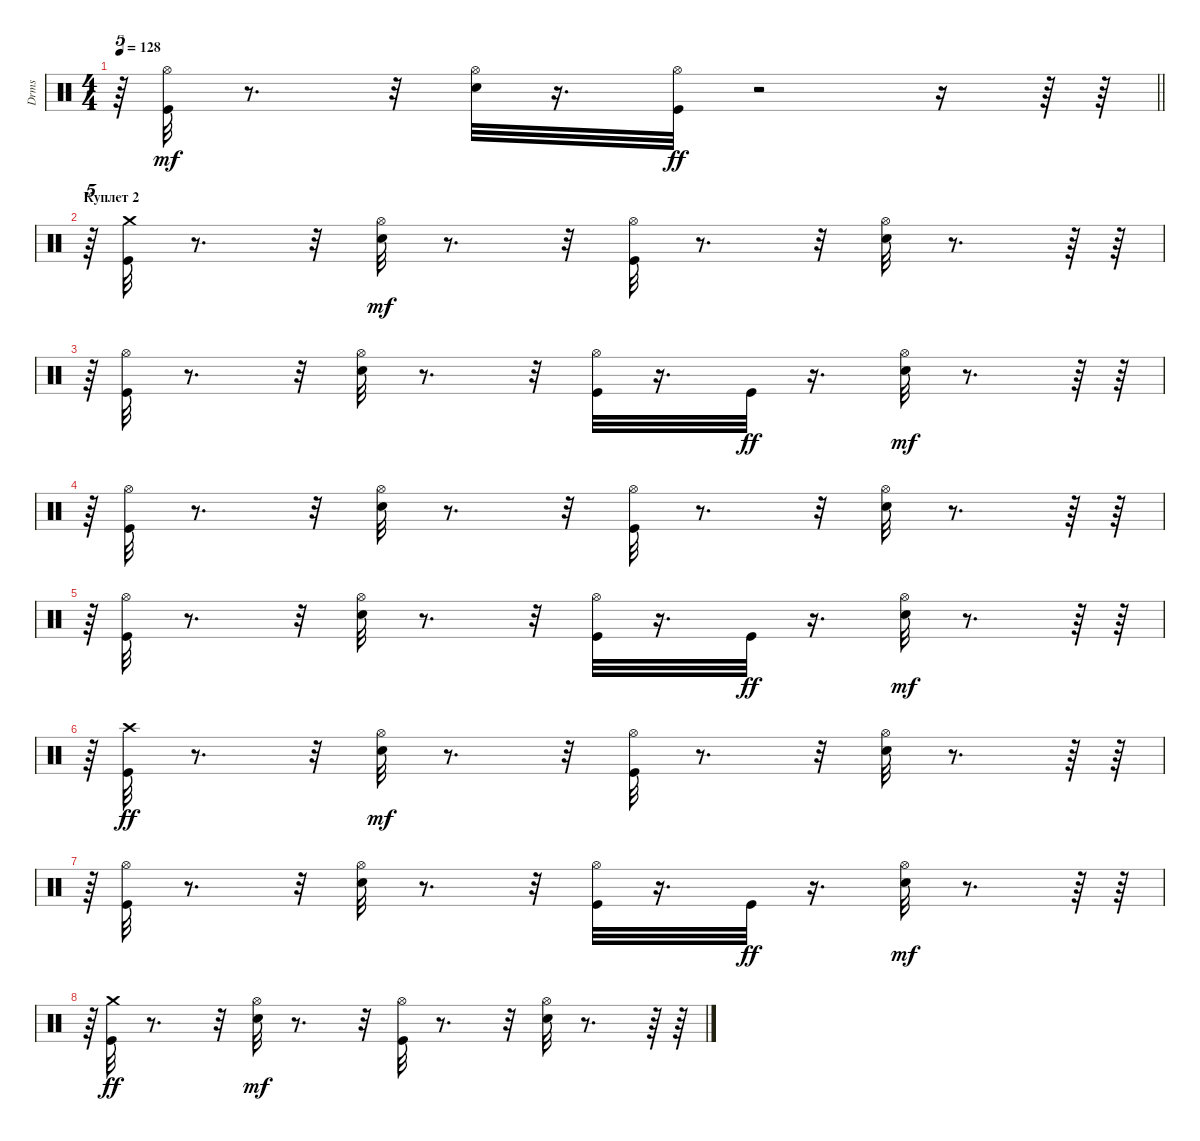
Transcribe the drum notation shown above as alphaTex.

\track ("Drms" "Drms") {instrument percussion}
\staff {score}
\articulation defaults
\ts (4 4)
\tempo 128
\clef neutral
\barLineRight lightlight
\ks c
r.64{tu (5 4) dy mf} ("Kick (hit)" "Hi-Hat (open)").32 r.8{d} r.32 ("Snare (hit) 2" "Hi-Hat (open)").32 r.16{d} ("Hi-Hat (open)" "Kick (hit)").32{dy ff} r.2 r.16 r.64 r.64 |
\section ("" "Куплет 2")
r.64{tu (5 4)} ("Kick (hit)" "Crash medium (hit)").32 r.8{d} r.32 ("Snare (hit) 2" "Hi-Hat (open)").32{dy mf} r.8{d} r.32 ("Kick (hit)" "Hi-Hat (open)").32 r.8{d} r.32 ("Snare (hit) 2" "Hi-Hat (open)").32 r.8{d} r.64 r.64 |
r.64{tu (5 4)} ("Kick (hit)" "Hi-Hat (open)").32 r.8{d} r.32 ("Snare (hit) 2" "Hi-Hat (open)").32 r.8{d} r.32 ("Kick (hit)" "Hi-Hat (open)").32 r.16{d} "Kick (hit)".32{dy ff} r.16{d} ("Snare (hit) 2" "Hi-Hat (open)").32{dy mf} r.8{d} r.64 r.64 |
r.64{tu (5 4)} ("Kick (hit)" "Hi-Hat (open)").32 r.8{d} r.32 ("Snare (hit) 2" "Hi-Hat (open)").32 r.8{d} r.32 ("Kick (hit)" "Hi-Hat (open)").32 r.8{d} r.32 ("Snare (hit) 2" "Hi-Hat (open)").32 r.8{d} r.64 r.64 |
r.64{tu (5 4)} ("Kick (hit)" "Hi-Hat (open)").32 r.8{d} r.32 ("Snare (hit) 2" "Hi-Hat (open)").32 r.8{d} r.32 ("Kick (hit)" "Hi-Hat (open)").32 r.16{d} "Kick (hit)".32{dy ff} r.16{d} ("Snare (hit) 2" "Hi-Hat (open)").32{dy mf} r.8{d} r.64 r.64 |
r.64{tu (5 4)} ("Kick (hit)" "Crash high (hit)").32{dy ff} r.8{d} r.32 ("Snare (hit) 2" "Hi-Hat (open)").32{dy mf} r.8{d} r.32 ("Kick (hit)" "Hi-Hat (open)").32 r.8{d} r.32 ("Snare (hit) 2" "Hi-Hat (open)").32 r.8{d} r.64 r.64 |
r.64{tu (5 4)} ("Kick (hit)" "Hi-Hat (open)").32 r.8{d} r.32 ("Snare (hit) 2" "Hi-Hat (open)").32 r.8{d} r.32 ("Kick (hit)" "Hi-Hat (open)").32 r.16{d} "Kick (hit)".32{dy ff} r.16{d} ("Snare (hit) 2" "Hi-Hat (open)").32{dy mf} r.8{d} r.64 r.64 |
r.64{tu (5 4)} ("Kick (hit)" "Crash medium (hit)").32{dy ff} r.8{d} r.32 ("Snare (hit) 2" "Hi-Hat (open)").32{dy mf} r.8{d} r.32 ("Kick (hit)" "Hi-Hat (open)").32 r.8{d} r.32 ("Snare (hit) 2" "Hi-Hat (open)").32 r.8{d} r.64 r.64
